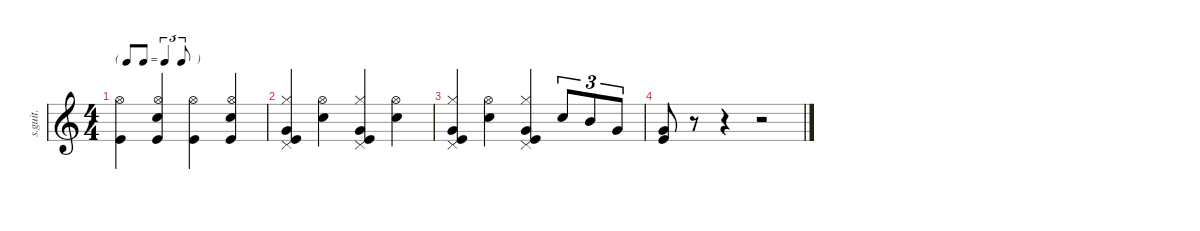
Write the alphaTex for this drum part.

\defaultSystemsLayout 4
\hideDynamics
\bracketExtendMode nobrackets
\track ("Dave Grohl" "s.guit.") {instrument percussion}
\staff {score}
\articulation defaults
\ts (4 4)
\tf triplet8th
\tempo (171 hide)
\clef g2
\ks c
("Kick (hit)" "Hi-Hat (open)").4{lyrics (0 "") lyrics (1 "") lyrics (2 "") lyrics (3 "") lyrics (4 "") dy mf} ("Kick (hit)" "Snare (hit) 2" "Hi-Hat (open)").4{lyrics (0 "") lyrics (1 "") lyrics (2 "") lyrics (3 "") lyrics (4 "")} ("Kick (hit)" "Hi-Hat (open)").4{lyrics (0 "") lyrics (1 "") lyrics (2 "") lyrics (3 "") lyrics (4 "")} ("Snare (hit) 2" "Hi-Hat (open)" "Kick (hit)").4{lyrics (0 "") lyrics (1 "") lyrics (2 "") lyrics (3 "") lyrics (4 "")} |
("Kick (hit)" "Very Low Tom (hit)" "Hi-Hat (closed)" "Pedal Hi-Hat (hit)").4{lyrics (0 "") lyrics (1 "") lyrics (2 "") lyrics (3 "") lyrics (4 "")} ("Snare (hit) 2" "Hi-Hat (open)").4{lyrics (0 "") lyrics (1 "") lyrics (2 "") lyrics (3 "") lyrics (4 "")} ("Kick (hit)" "Very Low Tom (hit)" "Hi-Hat (closed)" "Pedal Hi-Hat (hit)").4{lyrics (0 "") lyrics (1 "") lyrics (2 "") lyrics (3 "") lyrics (4 "")} ("Snare (hit) 2" "Hi-Hat (open)").4{lyrics (0 "") lyrics (1 "") lyrics (2 "") lyrics (3 "") lyrics (4 "")} |
("Kick (hit)" "Very Low Tom (hit)" "Hi-Hat (closed)" "Pedal Hi-Hat (hit)").4{lyrics (0 "") lyrics (1 "") lyrics (2 "") lyrics (3 "") lyrics (4 "")} ("Snare (hit) 2" "Hi-Hat (open)").4{lyrics (0 "") lyrics (1 "") lyrics (2 "") lyrics (3 "") lyrics (4 "")} ("Kick (hit)" "Very Low Tom (hit)" "Hi-Hat (closed)" "Pedal Hi-Hat (hit)").4{lyrics (0 "") lyrics (1 "") lyrics (2 "") lyrics (3 "") lyrics (4 "")} "Snare (hit) 2".8{tu (3 2) lyrics (0 "") lyrics (1 "") lyrics (2 "") lyrics (3 "") lyrics (4 "")} "Mid Tom (hit)".8{tu (3 2) lyrics (0 "") lyrics (1 "") lyrics (2 "") lyrics (3 "") lyrics (4 "")} "Very Low Tom (hit)".8{tu (3 2) lyrics (0 "") lyrics (1 "") lyrics (2 "") lyrics (3 "") lyrics (4 "")} |
("Kick (hit)" "Very Low Tom (hit)").8{lyrics (0 "") lyrics (1 "") lyrics (2 "") lyrics (3 "") lyrics (4 "")} r.8 r.4 r.2
